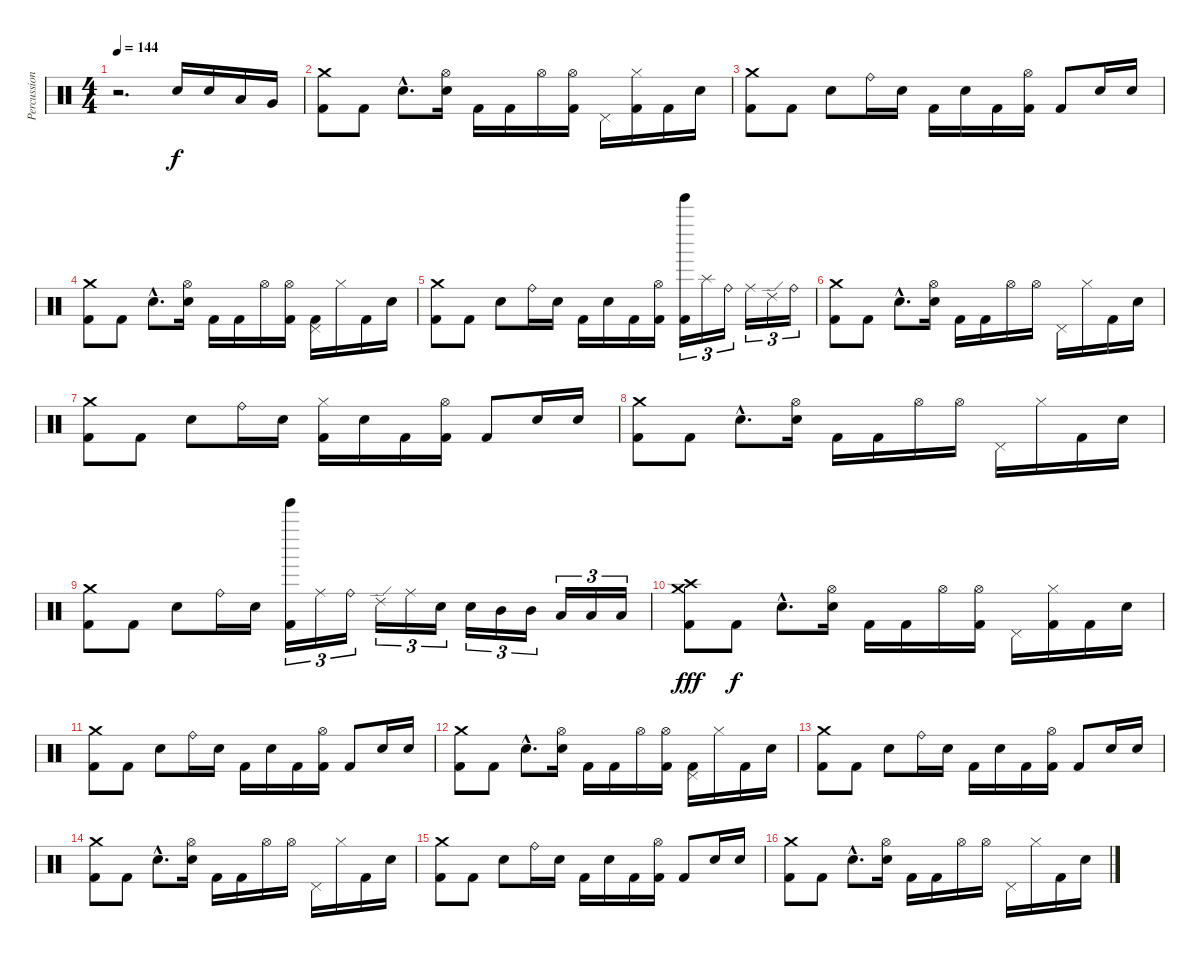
\track ("Percussion" "Percussion") {instrument percussion}
\staff {score}
\articulation defaults
\ts (4 4)
\tempo 144
\clef neutral
\ks c
r.2{d dy f} "Electric Snare (hit)".16 "Electric Snare (hit)".16 "Low Tom (hit)".16 "Very Low Tom (hit)".16 |
("Crash medium (hit)" "Kick (hit) 2").8 "Kick (hit) 2".8 "Electric Snare (hit)"{hac}.8{d} ("Hi-Hat (open)" "Electric Snare (hit)").16 "Kick (hit) 2".16 "Kick (hit) 2".16 "Hi-Hat (open)".16 ("Hi-Hat (open)" "Kick (hit) 2").16 "Pedal Hi-Hat (hit)".16 ("Hi-Hat (closed)" "Kick (hit) 2").16 "Kick (hit) 2".16 "Electric Snare (hit)".16 |
("Crash medium (hit)" "Kick (hit) 2").8 "Kick (hit) 2".8 "Electric Snare (hit)".8 "Ride (bell)".16 "Electric Snare (hit)".16 "Kick (hit) 2".16 "Electric Snare (hit)".16 "Kick (hit) 2".16 ("Hi-Hat (open)" "Kick (hit) 2").16 "Kick (hit) 2".8 "Electric Snare (hit)".16 "Electric Snare (hit)".16 |
("Crash medium (hit)" "Kick (hit) 2").8 "Kick (hit) 2".8 "Electric Snare (hit)"{hac}.8{d} ("Hi-Hat (open)" "Electric Snare (hit)").16 "Kick (hit) 2".16 "Kick (hit) 2".16 "Hi-Hat (open)".16 ("Hi-Hat (open)" "Kick (hit) 2").16 ("Pedal Hi-Hat (hit)" "Kick (hit) 2").16 "Hi-Hat (closed)".16 "Kick (hit) 2".16 "Electric Snare (hit)".16 |
("Crash medium (hit)" "Kick (hit) 2").8 "Kick (hit) 2".8 "Electric Snare (hit)".8 "Ride (bell)".16 "Electric Snare (hit)".16 "Kick (hit) 2".16 "Electric Snare (hit)".16 "Kick (hit) 2".16 ("Hi-Hat (open)" "Kick (hit) 2").16 ("Tinkle Bell (hit)" "Kick (hit) 2").16{tu (3 2)} "Splash (hit)".16{tu (3 2)} "Ride (bell)".16{tu (3 2)} "Ride (middle)".16{tu (3 2)} "Ride (edge) 2".16{tu (3 2)} "Ride (bell)".16{tu (3 2)} |
("Crash medium (hit)" "Kick (hit) 2").8 "Kick (hit) 2".8 "Electric Snare (hit)"{hac}.8{d} ("Hi-Hat (open)" "Electric Snare (hit)").16 "Kick (hit) 2".16 "Kick (hit) 2".16 "Hi-Hat (open)".16 "Hi-Hat (open)".16 "Pedal Hi-Hat (hit)".16 "Hi-Hat (closed)".16 "Kick (hit) 2".16 "Electric Snare (hit)".16 |
("Crash medium (hit)" "Kick (hit) 2").8 "Kick (hit) 2".8 "Electric Snare (hit)".8 "Ride (bell)".16 "Electric Snare (hit)".16 ("Hi-Hat (closed)" "Kick (hit) 2").16 "Electric Snare (hit)".16 "Kick (hit) 2".16 ("Hi-Hat (open)" "Kick (hit) 2").16 "Kick (hit) 2".8 "Electric Snare (hit)".16 "Electric Snare (hit)".16 |
("Crash medium (hit)" "Kick (hit) 2").8 "Kick (hit) 2".8 "Electric Snare (hit)"{hac}.8{d} ("Hi-Hat (open)" "Electric Snare (hit)").16 "Kick (hit) 2".16 "Kick (hit) 2".16 "Hi-Hat (open)".16 "Hi-Hat (open)".16 "Pedal Hi-Hat (hit)".16 "Hi-Hat (closed)".16 "Kick (hit) 2".16 "Electric Snare (hit)".16 |
("Crash medium (hit)" "Kick (hit) 2").8 "Kick (hit) 2".8 "Electric Snare (hit)".8 "Ride (bell)".16 "Electric Snare (hit)".16 ("Tinkle Bell (hit)" "Kick (hit) 2").16{tu (3 2)} "Ride (middle)".16{tu (3 2)} "Ride (bell)".16{tu (3 2)} "Ride (edge) 2".16{tu (3 2)} "Ride (middle)".16{tu (3 2)} "Electric Snare (hit)".16{tu (3 2)} "Electric Snare (hit)".16{tu (3 2)} "Mid Tom (hit)".16{tu (3 2)} "Mid Tom (hit)".16{tu (3 2)} "Low Tom (hit)".16{tu (3 2)} "Low Tom (hit)".16{tu (3 2)} "Low Tom (hit)".16{tu (3 2)} |
("Crash medium (hit)" "Crash high (hit)" "Kick (hit) 2").8{dy fff} "Kick (hit) 2".8{dy f} "Electric Snare (hit)"{hac}.8{d} ("Hi-Hat (open)" "Electric Snare (hit)").16 "Kick (hit) 2".16 "Kick (hit) 2".16 "Hi-Hat (open)".16 ("Hi-Hat (open)" "Kick (hit) 2").16 "Pedal Hi-Hat (hit)".16 ("Hi-Hat (closed)" "Kick (hit) 2").16 "Kick (hit) 2".16 "Electric Snare (hit)".16 |
("Crash medium (hit)" "Kick (hit) 2").8 "Kick (hit) 2".8 "Electric Snare (hit)".8 "Ride (bell)".16 "Electric Snare (hit)".16 "Kick (hit) 2".16 "Electric Snare (hit)".16 "Kick (hit) 2".16 ("Hi-Hat (open)" "Kick (hit) 2").16 "Kick (hit) 2".8 "Electric Snare (hit)".16 "Electric Snare (hit)".16 |
("Crash medium (hit)" "Kick (hit) 2").8 "Kick (hit) 2".8 "Electric Snare (hit)"{hac}.8{d} ("Hi-Hat (open)" "Electric Snare (hit)").16 "Kick (hit) 2".16 "Kick (hit) 2".16 "Hi-Hat (open)".16 ("Hi-Hat (open)" "Kick (hit) 2").16 ("Pedal Hi-Hat (hit)" "Kick (hit) 2").16 "Hi-Hat (closed)".16 "Kick (hit) 2".16 "Electric Snare (hit)".16 |
("Crash medium (hit)" "Kick (hit) 2").8 "Kick (hit) 2".8 "Electric Snare (hit)".8 "Ride (bell)".16 "Electric Snare (hit)".16 "Kick (hit) 2".16 "Electric Snare (hit)".16 "Kick (hit) 2".16 ("Hi-Hat (open)" "Kick (hit) 2").16 "Kick (hit) 2".8 "Electric Snare (hit)".16 "Electric Snare (hit)".16 |
("Crash medium (hit)" "Kick (hit) 2").8 "Kick (hit) 2".8 "Electric Snare (hit)"{hac}.8{d} ("Hi-Hat (open)" "Electric Snare (hit)").16 "Kick (hit) 2".16 "Kick (hit) 2".16 "Hi-Hat (open)".16 "Hi-Hat (open)".16 "Pedal Hi-Hat (hit)".16 "Hi-Hat (closed)".16 "Kick (hit) 2".16 "Electric Snare (hit)".16 |
("Crash medium (hit)" "Kick (hit) 2").8 "Kick (hit) 2".8 "Electric Snare (hit)".8 "Ride (bell)".16 "Electric Snare (hit)".16 "Kick (hit) 2".16 "Electric Snare (hit)".16 "Kick (hit) 2".16 ("Hi-Hat (open)" "Kick (hit) 2").16 "Kick (hit) 2".8 "Electric Snare (hit)".16 "Electric Snare (hit)".16 |
("Crash medium (hit)" "Kick (hit) 2").8 "Kick (hit) 2".8 "Electric Snare (hit)"{hac}.8{d} ("Hi-Hat (open)" "Electric Snare (hit)").16 "Kick (hit) 2".16 "Kick (hit) 2".16 "Hi-Hat (open)".16 "Hi-Hat (open)".16 "Pedal Hi-Hat (hit)".16 "Hi-Hat (closed)".16 "Kick (hit) 2".16 "Electric Snare (hit)".16
